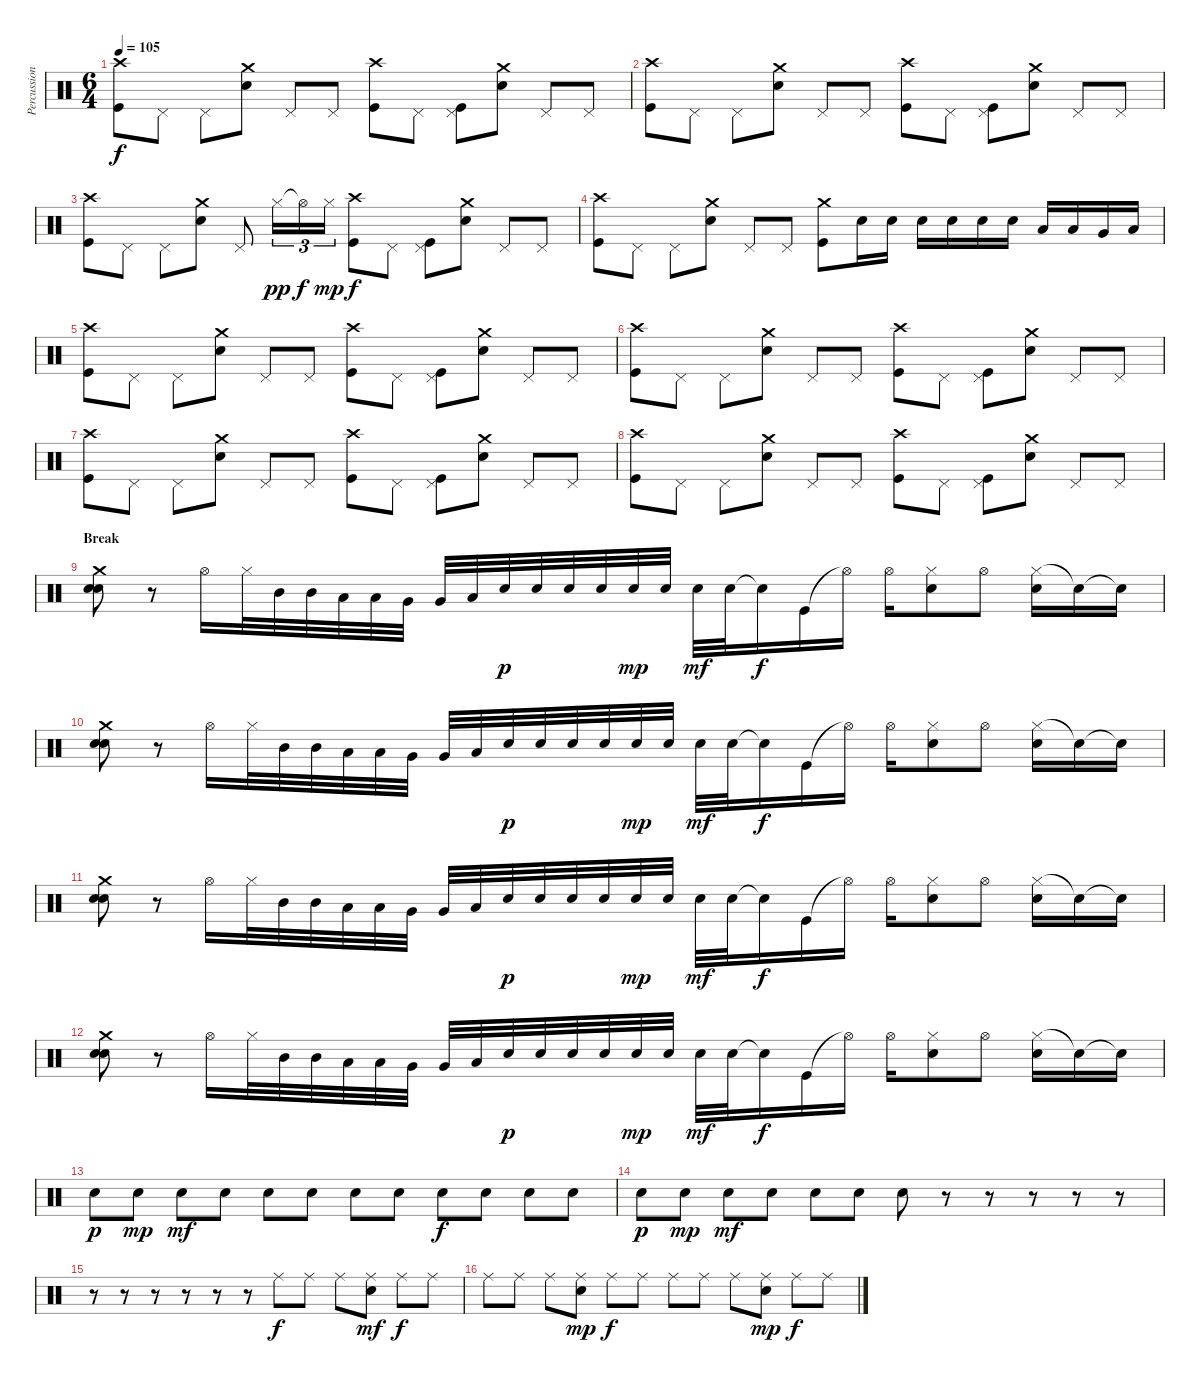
\track ("Percussions" "Percussion") {instrument percussion}
\staff {score}
\articulation defaults
\ts (6 4)
\tempo 105
\clef neutral
\ks c
("Kick (hit)" "Crash high (hit)").8{dy f} "Pedal Hi-Hat (hit)".8 "Pedal Hi-Hat (hit)".8 ("Electric Snare (hit)" "Crash medium (hit)").8 "Pedal Hi-Hat (hit)".8 "Pedal Hi-Hat (hit)".8 ("Kick (hit)" "Crash high (hit)").8 "Pedal Hi-Hat (hit)".8 ("Kick (hit)" "Pedal Hi-Hat (hit)").8 ("Electric Snare (hit)" "Crash medium (hit)").8 "Pedal Hi-Hat (hit)".8 "Pedal Hi-Hat (hit)".8 |
("Kick (hit)" "Crash high (hit)").8 "Pedal Hi-Hat (hit)".8 "Pedal Hi-Hat (hit)".8 ("Electric Snare (hit)" "Crash medium (hit)").8 "Pedal Hi-Hat (hit)".8 "Pedal Hi-Hat (hit)".8 ("Kick (hit)" "Crash high (hit)").8 "Pedal Hi-Hat (hit)".8 ("Kick (hit)" "Pedal Hi-Hat (hit)").8 ("Electric Snare (hit)" "Crash medium (hit)").8 "Pedal Hi-Hat (hit)".8 "Pedal Hi-Hat (hit)".8 |
("Kick (hit)" "Crash high (hit)").8 "Pedal Hi-Hat (hit)".8 "Pedal Hi-Hat (hit)".8 ("Electric Snare (hit)" "Crash medium (hit)").8 "Pedal Hi-Hat (hit)".8 "Hi-Hat (closed)".16{tu (3 2) dy pp} "Hi-Hat (open)"{t}.16{tu (3 2) dy f} "Hi-Hat (closed)".16{tu (3 2) dy mp} ("Kick (hit)" "Crash high (hit)").8{dy f} "Pedal Hi-Hat (hit)".8 ("Kick (hit)" "Pedal Hi-Hat (hit)").8 ("Electric Snare (hit)" "Crash medium (hit)").8 "Pedal Hi-Hat (hit)".8 "Pedal Hi-Hat (hit)".8 |
("Kick (hit)" "Crash high (hit)").8 "Pedal Hi-Hat (hit)".8 "Pedal Hi-Hat (hit)".8 ("Electric Snare (hit)" "Crash medium (hit)").8 "Pedal Hi-Hat (hit)".8 "Pedal Hi-Hat (hit)".8 ("Kick (hit)" "Crash medium (hit)").8 "Snare (hit) 2".16 "Snare (hit) 2".16 "Snare (hit) 2".16 "Snare (hit) 2".16 "Snare (hit) 2".16 "Electric Snare (hit)".16 "Low Tom (hit)".16 "Low Tom (hit)".16 "Very Low Tom (hit)".16 "Low Floor Tom (hit)".16 |
("Kick (hit)" "Crash high (hit)").8 "Pedal Hi-Hat (hit)".8 "Pedal Hi-Hat (hit)".8 ("Electric Snare (hit)" "Crash medium (hit)").8 "Pedal Hi-Hat (hit)".8 "Pedal Hi-Hat (hit)".8 ("Kick (hit)" "Crash high (hit)").8 "Pedal Hi-Hat (hit)".8 ("Kick (hit)" "Pedal Hi-Hat (hit)").8 ("Electric Snare (hit)" "Crash medium (hit)").8 "Pedal Hi-Hat (hit)".8 "Pedal Hi-Hat (hit)".8 |
("Kick (hit)" "Crash high (hit)").8 "Pedal Hi-Hat (hit)".8 "Pedal Hi-Hat (hit)".8 ("Electric Snare (hit)" "Crash medium (hit)").8 "Pedal Hi-Hat (hit)".8 "Pedal Hi-Hat (hit)".8 ("Kick (hit)" "Crash high (hit)").8 "Pedal Hi-Hat (hit)".8 ("Kick (hit)" "Pedal Hi-Hat (hit)").8 ("Electric Snare (hit)" "Crash medium (hit)").8 "Pedal Hi-Hat (hit)".8 "Pedal Hi-Hat (hit)".8 |
("Kick (hit)" "Crash high (hit)").8 "Pedal Hi-Hat (hit)".8 "Pedal Hi-Hat (hit)".8 ("Electric Snare (hit)" "Crash medium (hit)").8 "Pedal Hi-Hat (hit)".8 "Pedal Hi-Hat (hit)".8 ("Kick (hit)" "Crash high (hit)").8 "Pedal Hi-Hat (hit)".8 ("Kick (hit)" "Pedal Hi-Hat (hit)").8 ("Electric Snare (hit)" "Crash medium (hit)").8 "Pedal Hi-Hat (hit)".8 "Pedal Hi-Hat (hit)".8 |
("Kick (hit)" "Crash high (hit)").8 "Pedal Hi-Hat (hit)".8 "Pedal Hi-Hat (hit)".8 ("Electric Snare (hit)" "Crash medium (hit)").8 "Pedal Hi-Hat (hit)".8 "Pedal Hi-Hat (hit)".8 ("Kick (hit)" "Crash high (hit)").8 "Pedal Hi-Hat (hit)".8 ("Kick (hit)" "Pedal Hi-Hat (hit)").8 ("Electric Snare (hit)" "Crash medium (hit)").8 "Pedal Hi-Hat (hit)".8 "Pedal Hi-Hat (hit)".8 |
\section ("" "Break")
("Crash medium (hit)" "Electric Snare (hit)" "Electric Snare (hit)").8 r.8 "Hi-Hat (open)".16 "Hi-Hat (closed)".32 "Mid Tom (hit)".32 "Mid Tom (hit)".32 "Low Tom (hit)".32 "Low Tom (hit)".32 "Very Low Tom (hit)".32 "Very Low Tom (hit)".32 "Low Floor Tom (hit)".32 "Snare (hit) 2".32{dy p} "Snare (hit) 2".32 "Snare (hit) 2".32 "Snare (hit) 2".32 "Snare (hit) 2".32{dy mp} "Electric Snare (hit)".32 "Electric Snare (hit)".32{dy mf} "Electric Snare (hit)".32 "Snare (hit)"{t}.16{dy f} "Kick (hit)".16 "Hi-Hat (open)"{t}.16 "Hi-Hat (open)".16 ("Hi-Hat (closed)" "Electric Snare (hit)").8 "Hi-Hat (open)".8 ("Hi-Hat (closed)" "Electric Snare (hit)").16 "Snare (hit)"{t}.16 "Snare (hit)"{t}.16 |
("Crash medium (hit)" "Electric Snare (hit)" "Electric Snare (hit)").8 r.8 "Hi-Hat (open)".16 "Hi-Hat (closed)".32 "Mid Tom (hit)".32 "Mid Tom (hit)".32 "Low Tom (hit)".32 "Low Tom (hit)".32 "Very Low Tom (hit)".32 "Very Low Tom (hit)".32 "Low Floor Tom (hit)".32 "Snare (hit) 2".32{dy p} "Snare (hit) 2".32 "Snare (hit) 2".32 "Snare (hit) 2".32 "Snare (hit) 2".32{dy mp} "Electric Snare (hit)".32 "Electric Snare (hit)".32{dy mf} "Electric Snare (hit)".32 "Snare (hit)"{t}.16{dy f} "Kick (hit)".16 "Hi-Hat (open)"{t}.16 "Hi-Hat (open)".16 ("Hi-Hat (closed)" "Electric Snare (hit)").8 "Hi-Hat (open)".8 ("Hi-Hat (closed)" "Electric Snare (hit)").16 "Snare (hit)"{t}.16 "Snare (hit)"{t}.16 |
("Crash medium (hit)" "Electric Snare (hit)" "Electric Snare (hit)").8 r.8 "Hi-Hat (open)".16 "Hi-Hat (closed)".32 "Mid Tom (hit)".32 "Mid Tom (hit)".32 "Low Tom (hit)".32 "Low Tom (hit)".32 "Very Low Tom (hit)".32 "Very Low Tom (hit)".32 "Low Floor Tom (hit)".32 "Snare (hit) 2".32{dy p} "Snare (hit) 2".32 "Snare (hit) 2".32 "Snare (hit) 2".32 "Snare (hit) 2".32{dy mp} "Electric Snare (hit)".32 "Electric Snare (hit)".32{dy mf} "Electric Snare (hit)".32 "Snare (hit)"{t}.16{dy f} "Kick (hit)".16 "Hi-Hat (open)"{t}.16 "Hi-Hat (open)".16 ("Hi-Hat (closed)" "Electric Snare (hit)").8 "Hi-Hat (open)".8 ("Hi-Hat (closed)" "Electric Snare (hit)").16 "Snare (hit)"{t}.16 "Snare (hit)"{t}.16 |
("Crash medium (hit)" "Electric Snare (hit)" "Electric Snare (hit)").8 r.8 "Hi-Hat (open)".16 "Hi-Hat (closed)".32 "Mid Tom (hit)".32 "Mid Tom (hit)".32 "Low Tom (hit)".32 "Low Tom (hit)".32 "Very Low Tom (hit)".32 "Very Low Tom (hit)".32 "Low Floor Tom (hit)".32 "Snare (hit) 2".32{dy p} "Snare (hit) 2".32 "Snare (hit) 2".32 "Snare (hit) 2".32 "Snare (hit) 2".32{dy mp} "Electric Snare (hit)".32 "Electric Snare (hit)".32{dy mf} "Electric Snare (hit)".32 "Snare (hit)"{t}.16{dy f} "Kick (hit)".16 "Hi-Hat (open)"{t}.16 "Hi-Hat (open)".16 ("Hi-Hat (closed)" "Electric Snare (hit)").8 "Hi-Hat (open)".8 ("Hi-Hat (closed)" "Electric Snare (hit)").16 "Snare (hit)"{t}.16 "Snare (hit)"{t}.16 |
"Electric Snare (hit)".8{dy p} "Electric Snare (hit)".8{dy mp} "Electric Snare (hit)".8{dy mf} "Electric Snare (hit)".8 "Electric Snare (hit)".8 "Electric Snare (hit)".8 "Electric Snare (hit)".8 "Electric Snare (hit)".8 "Electric Snare (hit)".8{dy f} "Electric Snare (hit)".8 "Electric Snare (hit)".8 "Electric Snare (hit)".8 |
"Electric Snare (hit)".8{dy p} "Electric Snare (hit)".8{dy mp} "Electric Snare (hit)".8{dy mf} "Electric Snare (hit)".8 "Electric Snare (hit)".8 "Electric Snare (hit)".8 "Electric Snare (hit)".8 r.8 r.8 r.8 r.8 r.8 |
r.8 r.8 r.8 r.8 r.8 r.8 "Ride (middle)".8{dy f volume 7} "Ride (middle)".8 "Ride (middle)".8 ("Electric Snare (hit)" "Ride (middle)").8{dy mf} "Ride (middle)".8{dy f} "Ride (middle)".8 |
"Ride (middle)".8 "Ride (middle)".8 "Ride (middle)".8 ("Electric Snare (hit)" "Ride (middle)").8{dy mp} "Ride (middle)".8{dy f} "Ride (middle)".8 "Ride (middle)".8 "Ride (middle)".8 "Ride (middle)".8 ("Electric Snare (hit)" "Ride (middle)").8{dy mp} "Ride (middle)".8{dy f} "Ride (middle)".8
